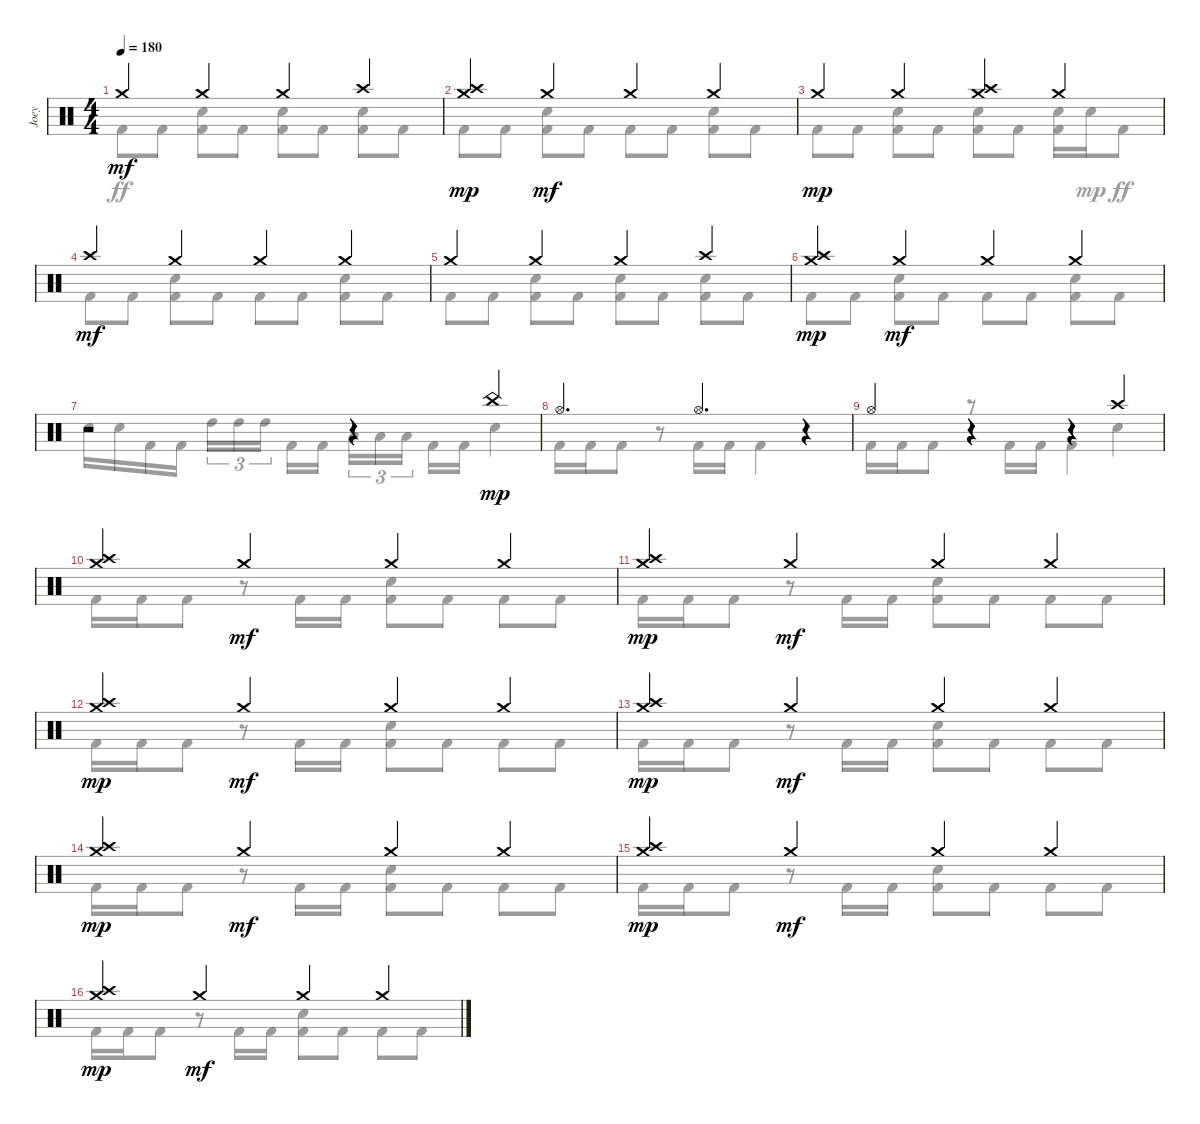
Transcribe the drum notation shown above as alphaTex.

\track ("Joey" "Joey") {instrument percussion}
\staff {score}
\articulation defaults
\voice
\ts (4 4)
\tempo 180
\clef neutral
\ks c "Crash medium (hit)".4{dy mf} "Crash medium (hit)".4 "Crash medium (hit)".4 "Crash high (hit)".4
|
("Crash high (hit)" "Crash medium (hit)").4{dy mp} "Crash medium (hit)".4{dy mf} "Crash medium (hit)".4 "Crash medium (hit)".4 |
"Crash medium (hit)".4{dy mp} "Crash medium (hit)".4 ("Crash medium (hit)" "Crash high (hit)").4 "Crash medium (hit)".4 |
"Crash high (hit)".4{dy mf} "Crash medium (hit)".4 "Crash medium (hit)".4 "Crash medium (hit)".4 |
"Crash medium (hit)".4 "Crash medium (hit)".4 "Crash medium (hit)".4 "Crash high (hit)".4 |
("Crash high (hit)" "Crash medium (hit)").4{dy mp} "Crash medium (hit)".4{dy mf} "Crash medium (hit)".4 "Crash medium (hit)".4 |
r.2 r.4 "China (hit)".4{dy mp} |
"Hi-Hat (open)".4{d} "Hi-Hat (open)".4{d} r.4 |
"Hi-Hat (open)".4 r.4 r.4 "Crash high (hit)".4 |
("Crash medium (hit)" "Crash high (hit)").4 "Crash medium (hit)".4{dy mf} "Crash medium (hit)".4 "Crash medium (hit)".4 |
("Crash medium (hit)" "Crash high (hit)").4{dy mp} "Crash medium (hit)".4{dy mf} "Crash medium (hit)".4 "Crash medium (hit)".4 |
("Crash medium (hit)" "Crash high (hit)").4{dy mp} "Crash medium (hit)".4{dy mf} "Crash medium (hit)".4 "Crash medium (hit)".4 |
("Crash medium (hit)" "Crash high (hit)").4{dy mp} "Crash medium (hit)".4{dy mf} "Crash medium (hit)".4 "Crash medium (hit)".4 |
("Crash medium (hit)" "Crash high (hit)").4{dy mp} "Crash medium (hit)".4{dy mf} "Crash medium (hit)".4 "Crash medium (hit)".4 |
("Crash medium (hit)" "Crash high (hit)").4{dy mp} "Crash medium (hit)".4{dy mf} "Crash medium (hit)".4 "Crash medium (hit)".4 |
("Crash medium (hit)" "Crash high (hit)").4{dy mp} "Crash medium (hit)".4{dy mf} "Crash medium (hit)".4 "Crash medium (hit)".4
\voice
\clef neutral
\ottava regular
\simile none
\ks c "Kick (hit) 2".8{dy ff} "Kick (hit) 2".8
("Electric Snare (hit)" "Kick (hit) 2").8 "Kick (hit) 2".8 ("Electric Snare (hit)" "Kick (hit) 2").8 "Kick (hit) 2".8 ("Electric Snare (hit)" "Kick (hit) 2").8 "Kick (hit) 2".8 |
"Kick (hit) 2".8 "Kick (hit) 2".8 ("Electric Snare (hit)" "Kick (hit) 2").8 "Kick (hit) 2".8 "Kick (hit) 2".8 "Kick (hit) 2".8 ("Electric Snare (hit)" "Kick (hit) 2").8 "Kick (hit) 2".8 |
"Kick (hit) 2".8 "Kick (hit) 2".8 ("Electric Snare (hit)" "Kick (hit) 2").8 "Kick (hit) 2".8 ("Electric Snare (hit)" "Kick (hit) 2").8 "Kick (hit) 2".8 ("Electric Snare (hit)" "Kick (hit) 2").16 "Electric Snare (hit)".16{dy mp} "Kick (hit) 2".8{dy ff} |
"Kick (hit) 2".8 "Kick (hit) 2".8 ("Electric Snare (hit)" "Kick (hit) 2").8 "Kick (hit) 2".8 "Kick (hit) 2".8 "Kick (hit) 2".8 ("Electric Snare (hit)" "Kick (hit) 2").8 "Kick (hit) 2".8 |
"Kick (hit) 2".8 "Kick (hit) 2".8 ("Electric Snare (hit)" "Kick (hit) 2").8 "Kick (hit) 2".8 ("Electric Snare (hit)" "Kick (hit) 2").8 "Kick (hit) 2".8 ("Electric Snare (hit)" "Kick (hit) 2").8 "Kick (hit) 2".8 |
"Kick (hit) 2".8 "Kick (hit) 2".8 ("Electric Snare (hit)" "Kick (hit) 2").8 "Kick (hit) 2".8 "Kick (hit) 2".8 "Kick (hit) 2".8 ("Electric Snare (hit)" "Kick (hit) 2").8 "Kick (hit) 2".8 |
"Electric Snare (hit)".16 "Electric Snare (hit)".16 "Kick (hit) 2".16 "Kick (hit) 2".16 "High Tom (hit)".16{tu (3 2)} "High Tom (hit)".16{tu (3 2)} "High Tom (hit)".16{tu (3 2) beam splitsecondary} "Kick (hit) 2".16 "Kick (hit) 2".16 "Low Tom (hit)".16{tu (3 2)} "Low Tom (hit)".16{tu (3 2)} "Low Tom (hit)".16{tu (3 2) beam splitsecondary} "Kick (hit) 2".16 "Kick (hit) 2".16 "Electric Snare (hit)".4 |
"Kick (hit) 2".16 "Kick (hit) 2".16 "Kick (hit) 2".8 r.8 "Kick (hit) 2".16 "Kick (hit) 2".16 "Kick (hit) 2".4 r.4 |
"Kick (hit) 2".16 "Kick (hit) 2".16 "Kick (hit) 2".8 r.8 "Kick (hit) 2".16 "Kick (hit) 2".16 "Kick (hit) 2".4 "Electric Snare (hit)".4 |
"Kick (hit) 2".16 "Kick (hit) 2".16 "Kick (hit) 2".8 r.8 "Kick (hit) 2".16 "Kick (hit) 2".16 ("Electric Snare (hit)" "Kick (hit) 2").8 "Kick (hit) 2".8 "Kick (hit) 2".8 "Kick (hit) 2".8 |
"Kick (hit) 2".16 "Kick (hit) 2".16 "Kick (hit) 2".8 r.8 "Kick (hit) 2".16 "Kick (hit) 2".16 ("Electric Snare (hit)" "Kick (hit) 2").8 "Kick (hit) 2".8 "Kick (hit) 2".8 "Kick (hit) 2".8 |
"Kick (hit) 2".16 "Kick (hit) 2".16 "Kick (hit) 2".8 r.8 "Kick (hit) 2".16 "Kick (hit) 2".16 ("Electric Snare (hit)" "Kick (hit) 2").8 "Kick (hit) 2".8 "Kick (hit) 2".8 "Kick (hit) 2".8 |
"Kick (hit) 2".16 "Kick (hit) 2".16 "Kick (hit) 2".8 r.8 "Kick (hit) 2".16 "Kick (hit) 2".16 ("Electric Snare (hit)" "Kick (hit) 2").8 "Kick (hit) 2".8 "Kick (hit) 2".8 "Kick (hit) 2".8 |
"Kick (hit) 2".16 "Kick (hit) 2".16 "Kick (hit) 2".8 r.8 "Kick (hit) 2".16 "Kick (hit) 2".16 ("Electric Snare (hit)" "Kick (hit) 2").8 "Kick (hit) 2".8 "Kick (hit) 2".8 "Kick (hit) 2".8 |
"Kick (hit) 2".16 "Kick (hit) 2".16 "Kick (hit) 2".8 r.8 "Kick (hit) 2".16 "Kick (hit) 2".16 ("Electric Snare (hit)" "Kick (hit) 2").8 "Kick (hit) 2".8 "Kick (hit) 2".8 "Kick (hit) 2".8 |
"Kick (hit) 2".16 "Kick (hit) 2".16 "Kick (hit) 2".8 r.8 "Kick (hit) 2".16 "Kick (hit) 2".16 ("Electric Snare (hit)" "Kick (hit) 2").8 "Kick (hit) 2".8 "Kick (hit) 2".8 "Kick (hit) 2".8
